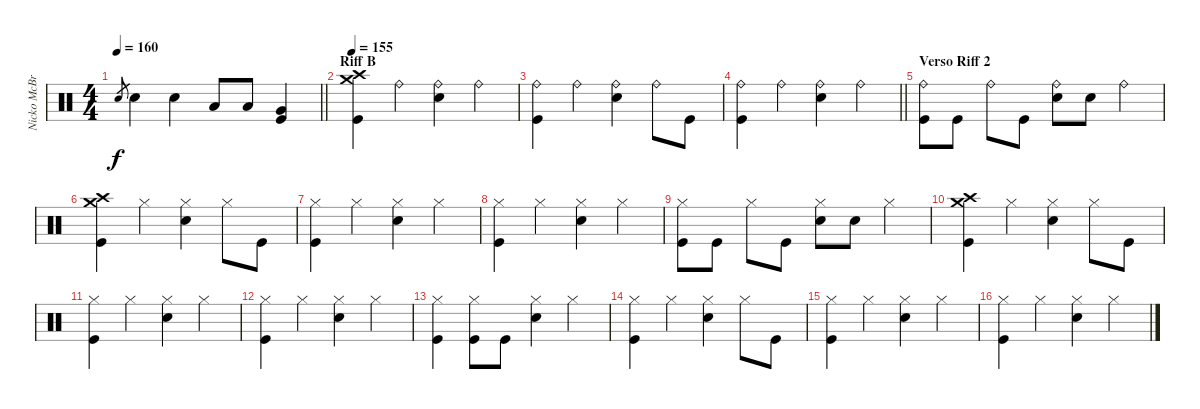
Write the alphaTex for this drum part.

\track ("Nicko McBrain" "Nicko McBr") {instrument percussion}
\staff {score}
\articulation defaults
\ts (4 4)
\tempo 160
\clef neutral
\barLineRight lightlight
\ks c "Snare (hit) 2".8{gr dy f} "Snare (hit) 2".4 "Snare (hit) 2".4 "Low Tom (hit)".8 "Low Tom (hit)".8
("Very Low Tom (hit)" "Kick (hit)").4 |
\section ("" "Riff B")
\tempo 155
("Crash medium (hit)" "Crash high (hit)" "Kick (hit)").4 "Ride (bell)".4 ("Ride (bell)" "Snare (hit) 2").4 "Ride (bell)".4 |
("Ride (bell)" "Kick (hit)").4 "Ride (bell)".4 ("Ride (bell)" "Snare (hit) 2").4 "Ride (bell)".8 "Kick (hit)".8 |
\barLineRight lightlight
("Ride (bell)" "Kick (hit)").4 "Ride (bell)".4 ("Ride (bell)" "Snare (hit) 2").4 "Ride (bell)".4 |
\section ("" "Verso Riff 2")
("Ride (bell)" "Kick (hit)").8 "Kick (hit)".8 "Ride (bell)".8 "Kick (hit)".8 ("Ride (bell)" "Snare (hit) 2").8 "Snare (hit) 2".8 "Ride (bell)".4 |
("Crash medium (hit)" "Crash high (hit)" "Kick (hit)").4 "Hi-Hat (closed)".4 ("Hi-Hat (closed)" "Snare (hit) 2").4 "Hi-Hat (closed)".8 "Kick (hit)".8 |
("Hi-Hat (closed)" "Kick (hit)").4 "Hi-Hat (closed)".4 ("Hi-Hat (closed)" "Snare (hit) 2").4 "Hi-Hat (closed)".4 |
("Hi-Hat (closed)" "Kick (hit)").4 "Hi-Hat (closed)".4 ("Hi-Hat (closed)" "Snare (hit) 2").4 "Hi-Hat (closed)".4 |
("Hi-Hat (closed)" "Kick (hit)").8 "Kick (hit)".8 "Hi-Hat (closed)".8 "Kick (hit)".8 ("Hi-Hat (closed)" "Snare (hit) 2").8 "Snare (hit) 2".8 "Hi-Hat (closed)".4 |
("Crash medium (hit)" "Crash high (hit)" "Kick (hit)").4 "Hi-Hat (closed)".4 ("Hi-Hat (closed)" "Snare (hit) 2").4 "Hi-Hat (closed)".8 "Kick (hit)".8 |
("Hi-Hat (closed)" "Kick (hit)").4 "Hi-Hat (closed)".4 ("Hi-Hat (closed)" "Snare (hit) 2").4 "Hi-Hat (closed)".4 |
("Hi-Hat (closed)" "Kick (hit)").4 "Hi-Hat (closed)".4 ("Hi-Hat (closed)" "Snare (hit) 2").4 "Hi-Hat (closed)".4 |
("Hi-Hat (closed)" "Kick (hit)").4 ("Hi-Hat (closed)" "Kick (hit)").8 "Kick (hit)".8 ("Hi-Hat (closed)" "Snare (hit) 2").4 "Hi-Hat (closed)".4 |
("Hi-Hat (closed)" "Kick (hit)").4 "Hi-Hat (closed)".4 ("Hi-Hat (closed)" "Snare (hit) 2").4 "Hi-Hat (closed)".8 "Kick (hit)".8 |
("Hi-Hat (closed)" "Kick (hit)").4 "Hi-Hat (closed)".4 ("Hi-Hat (closed)" "Snare (hit) 2").4 "Hi-Hat (closed)".4 |
("Hi-Hat (closed)" "Kick (hit)").4 "Hi-Hat (closed)".4 ("Hi-Hat (closed)" "Snare (hit) 2").4 "Hi-Hat (closed)".4
